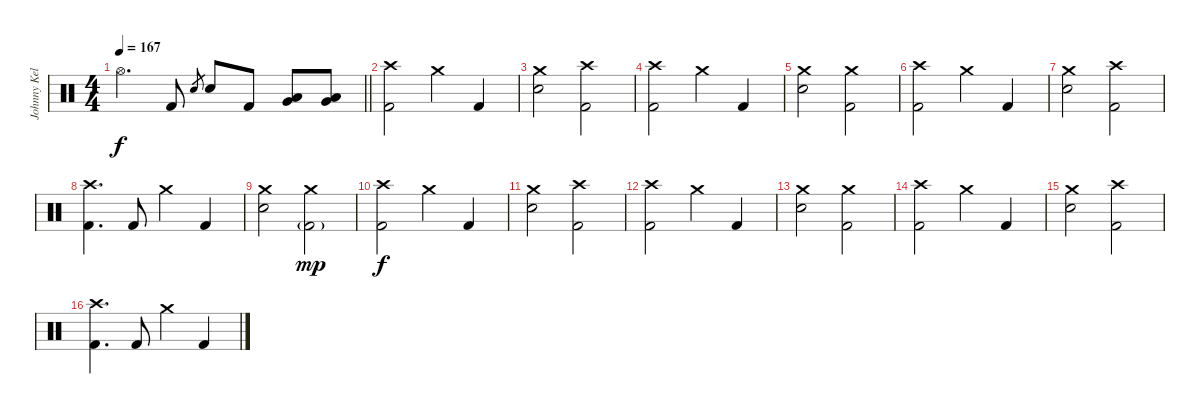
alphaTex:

\track ("Johnny Kelly" "Johnny Kel") {instrument percussion}
\staff {score}
\articulation defaults
\ts (4 4)
\tempo 167
\clef neutral
\barLineRight lightlight
\ks c "Hi-Hat (open)".4{d dy f} "Kick (hit) 2".8 "Electric Snare (hit)".8{gr} "Electric Snare (hit)".8 "Kick (hit) 2".8
("Very Low Tom (hit)" "Low Floor Tom (hit)").8 ("Very Low Tom (hit)" "Low Floor Tom (hit)").8 |
\section ("" "")
("Crash high (hit)" "Kick (hit) 2").2 "Crash medium (hit)".4 "Kick (hit) 2".4 |
("Crash medium (hit)" "Electric Snare (hit)").2 ("Crash high (hit)" "Kick (hit) 2").2 |
("Crash high (hit)" "Kick (hit) 2").2 "Crash medium (hit)".4 "Kick (hit) 2".4 |
("Crash medium (hit)" "Electric Snare (hit)").2 ("Crash medium (hit)" "Kick (hit) 2").2 |
("Crash high (hit)" "Kick (hit) 2").2 "Crash medium (hit)".4 "Kick (hit) 2".4 |
("Crash medium (hit)" "Electric Snare (hit)").2 ("Crash high (hit)" "Kick (hit) 2").2 |
("Crash high (hit)" "Kick (hit) 2").4{d} "Kick (hit) 2".8 "Crash medium (hit)".4 "Kick (hit) 2".4 |
("Crash medium (hit)" "Electric Snare (hit)").2 ("Crash medium (hit)" "Kick (hit) 2"{g}).2{dy mp} |
("Crash high (hit)" "Kick (hit) 2").2{dy f} "Crash medium (hit)".4 "Kick (hit) 2".4 |
("Crash medium (hit)" "Electric Snare (hit)").2 ("Crash high (hit)" "Kick (hit) 2").2 |
("Crash high (hit)" "Kick (hit) 2").2 "Crash medium (hit)".4 "Kick (hit) 2".4 |
("Crash medium (hit)" "Electric Snare (hit)").2 ("Crash medium (hit)" "Kick (hit) 2").2 |
("Crash high (hit)" "Kick (hit) 2").2 "Crash medium (hit)".4 "Kick (hit) 2".4 |
("Crash medium (hit)" "Electric Snare (hit)").2 ("Crash high (hit)" "Kick (hit) 2").2 |
("Crash high (hit)" "Kick (hit) 2").4{d} "Kick (hit) 2".8 "Crash medium (hit)".4 "Kick (hit) 2".4
